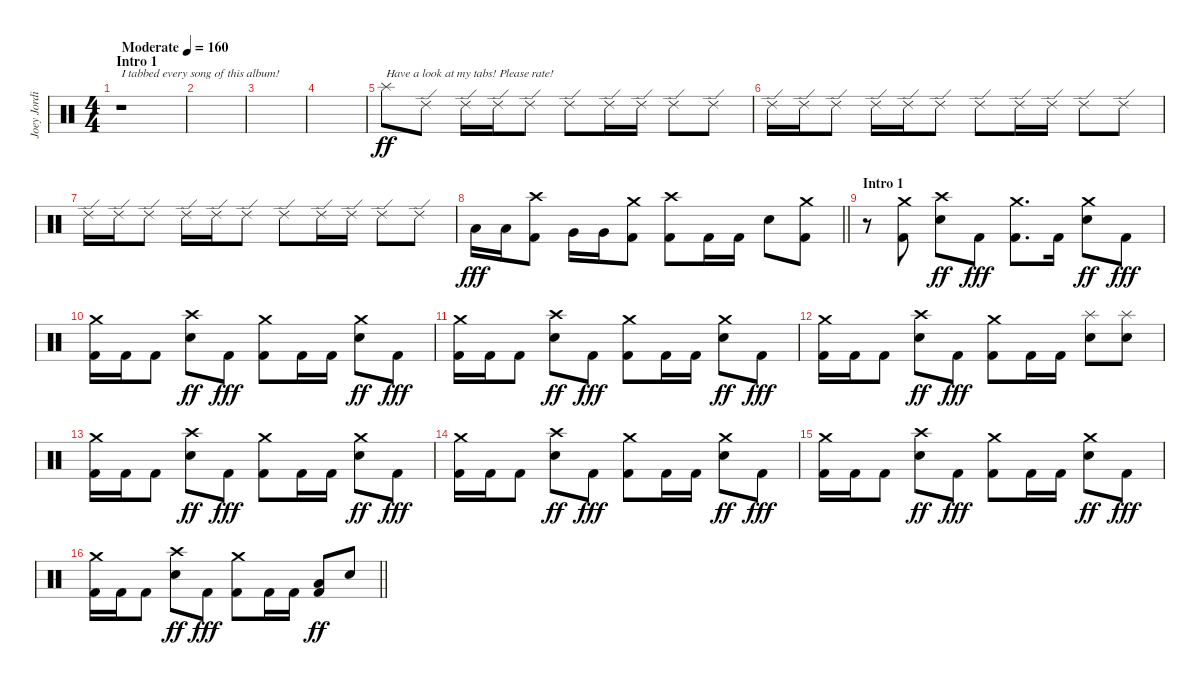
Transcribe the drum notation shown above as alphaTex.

\track ("Joey Jordison" "Joey Jordi") {instrument percussion}
\staff {score}
\articulation defaults
\ts (4 4)
\section ("" "Intro 1")
\tempo (160 "Moderate")
\clef neutral
\ks c
r.1{txt "I tabbed every song of this album! " dy ff} |
|
|
|
"Splash (hit)".8{txt "Have a look at my tabs! Please rate!"} "Ride (edge) 2".8 "Ride (edge) 2".16 "Ride (edge) 2".16 "Ride (edge) 2".8 "Ride (edge) 2".8 "Ride (edge) 2".16 "Ride (edge) 2".16 "Ride (edge) 2".8 "Ride (edge) 2".8 |
"Ride (edge) 2".16 "Ride (edge) 2".16 "Ride (edge) 2".8 "Ride (edge) 2".16 "Ride (edge) 2".16 "Ride (edge) 2".8 "Ride (edge) 2".8 "Ride (edge) 2".16 "Ride (edge) 2".16 "Ride (edge) 2".8 "Ride (edge) 2".8 |
"Ride (edge) 2".16 "Ride (edge) 2".16 "Ride (edge) 2".8 "Ride (edge) 2".16 "Ride (edge) 2".16 "Ride (edge) 2".8 "Ride (edge) 2".8 "Ride (edge) 2".16 "Ride (edge) 2".16 "Ride (edge) 2".8 "Ride (edge) 2".8 |
\barLineRight lightlight "Low Tom (hit)".16{dy fff} "Low Tom (hit)".16
("Crash high (hit)" "Kick (hit) 2").8 "Very Low Tom (hit)".16 "Very Low Tom (hit)".16 ("Crash medium (hit)" "Kick (hit) 2").8 ("Crash high (hit)" "Kick (hit) 2").8 "Kick (hit) 2".16 "Kick (hit) 2".16 "Electric Snare (hit)".8 ("Crash medium (hit)" "Kick (hit) 2").8 |
\section ("" "Intro 1")
r.8 ("Crash medium (hit)" "Kick (hit) 2").8 ("Crash high (hit)" "Electric Snare (hit)").8{dy ff} "Kick (hit) 2".8{dy fff} ("Crash medium (hit)" "Kick (hit) 2").8{d} "Kick (hit) 2".16 ("Crash medium (hit)" "Electric Snare (hit)").8{dy ff} "Kick (hit) 2".8{dy fff} |
("Crash medium (hit)" "Kick (hit) 2").16 "Kick (hit) 2".16 "Kick (hit) 2".8 ("Crash high (hit)" "Electric Snare (hit)").8{dy ff} "Kick (hit) 2".8{dy fff} ("Crash medium (hit)" "Kick (hit) 2").8 "Kick (hit) 2".16 "Kick (hit) 2".16 ("Crash medium (hit)" "Electric Snare (hit)").8{dy ff} "Kick (hit) 2".8{dy fff} |
("Crash medium (hit)" "Kick (hit) 2").16 "Kick (hit) 2".16 "Kick (hit) 2".8 ("Crash high (hit)" "Electric Snare (hit)").8{dy ff} "Kick (hit) 2".8{dy fff} ("Crash medium (hit)" "Kick (hit) 2").8 "Kick (hit) 2".16 "Kick (hit) 2".16 ("Crash medium (hit)" "Electric Snare (hit)").8{dy ff} "Kick (hit) 2".8{dy fff} |
("Crash medium (hit)" "Kick (hit) 2").16 "Kick (hit) 2".16 "Kick (hit) 2".8 ("Crash high (hit)" "Electric Snare (hit)").8{dy ff} "Kick (hit) 2".8{dy fff} ("Crash medium (hit)" "Kick (hit) 2").8 "Kick (hit) 2".16 "Kick (hit) 2".16 ("Splash (hit)" "Electric Snare (hit)").8 ("Splash (hit)" "Electric Snare (hit)").8 |
("Crash medium (hit)" "Kick (hit) 2").16 "Kick (hit) 2".16 "Kick (hit) 2".8 ("Crash high (hit)" "Electric Snare (hit)").8{dy ff} "Kick (hit) 2".8{dy fff} ("Crash medium (hit)" "Kick (hit) 2").8 "Kick (hit) 2".16 "Kick (hit) 2".16 ("Crash medium (hit)" "Electric Snare (hit)").8{dy ff} "Kick (hit) 2".8{dy fff} |
("Crash medium (hit)" "Kick (hit) 2").16 "Kick (hit) 2".16 "Kick (hit) 2".8 ("Crash high (hit)" "Electric Snare (hit)").8{dy ff} "Kick (hit) 2".8{dy fff} ("Crash medium (hit)" "Kick (hit) 2").8 "Kick (hit) 2".16 "Kick (hit) 2".16 ("Crash medium (hit)" "Electric Snare (hit)").8{dy ff} "Kick (hit) 2".8{dy fff} |
("Crash medium (hit)" "Kick (hit) 2").16 "Kick (hit) 2".16 "Kick (hit) 2".8 ("Crash high (hit)" "Electric Snare (hit)").8{dy ff} "Kick (hit) 2".8{dy fff} ("Crash medium (hit)" "Kick (hit) 2").8 "Kick (hit) 2".16 "Kick (hit) 2".16 ("Crash medium (hit)" "Electric Snare (hit)").8{dy ff} "Kick (hit) 2".8{dy fff} |
\barLineRight lightlight
("Crash medium (hit)" "Kick (hit) 2").16 "Kick (hit) 2".16 "Kick (hit) 2".8 ("Crash high (hit)" "Electric Snare (hit)").8{dy ff} "Kick (hit) 2".8{dy fff} ("Crash medium (hit)" "Kick (hit) 2").8 "Kick (hit) 2".16 "Kick (hit) 2".16 ("Low Tom (hit)" "Kick (hit) 2").8{dy ff} "Electric Snare (hit)".8
